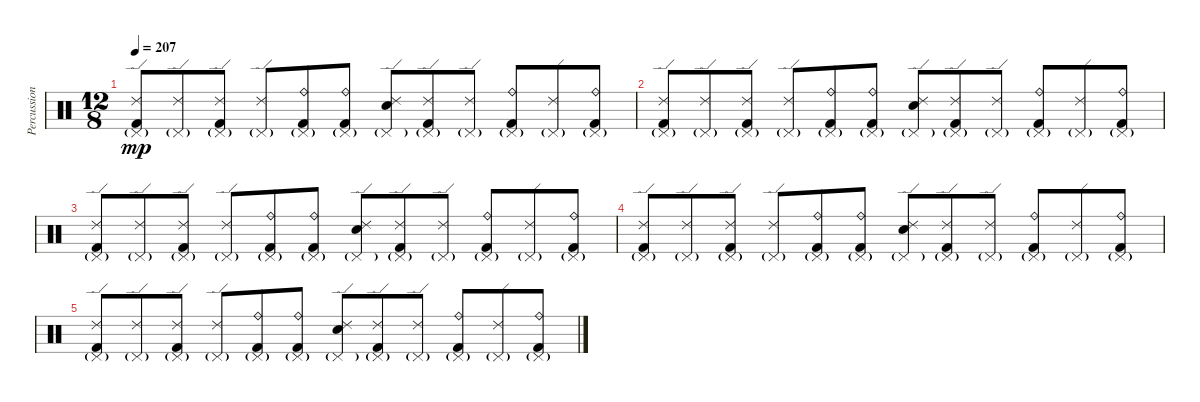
\track ("Percussion" "Percussion") {instrument percussion}
\staff {score}
\articulation defaults
\ts (12 8)
\tempo 207
\clef neutral
\ks c
("Ride (edge) 2" "Pedal Hi-Hat (hit)"{g} "Kick (hit) 2").8{dy mp} ("Ride (edge) 2" "Pedal Hi-Hat (hit)"{g}).8 ("Ride (edge) 2" "Pedal Hi-Hat (hit)"{g} "Kick (hit) 2").8 ("Ride (edge) 2" "Pedal Hi-Hat (hit)"{g}).8 ("Ride (bell)" "Pedal Hi-Hat (hit)"{g} "Kick (hit) 2").8 ("Ride (bell)" "Pedal Hi-Hat (hit)"{g} "Kick (hit) 2").8 ("Ride (edge) 2" "Pedal Hi-Hat (hit)"{g} "Electric Snare (hit)").8 ("Ride (edge) 2" "Pedal Hi-Hat (hit)"{g} "Kick (hit) 2").8 ("Ride (edge) 2" "Pedal Hi-Hat (hit)"{g}).8 ("Ride (bell)" "Pedal Hi-Hat (hit)"{g} "Kick (hit) 2").8 ("Ride (edge) 2" "Pedal Hi-Hat (hit)"{g}).8 ("Ride (bell)" "Pedal Hi-Hat (hit)"{g} "Kick (hit) 2").8 |
("Ride (edge) 2" "Pedal Hi-Hat (hit)"{g} "Kick (hit) 2").8 ("Ride (edge) 2" "Pedal Hi-Hat (hit)"{g}).8 ("Ride (edge) 2" "Pedal Hi-Hat (hit)"{g} "Kick (hit) 2").8 ("Ride (edge) 2" "Pedal Hi-Hat (hit)"{g}).8 ("Ride (bell)" "Pedal Hi-Hat (hit)"{g} "Kick (hit) 2").8 ("Ride (bell)" "Pedal Hi-Hat (hit)"{g} "Kick (hit) 2").8 ("Ride (edge) 2" "Pedal Hi-Hat (hit)"{g} "Electric Snare (hit)").8 ("Ride (edge) 2" "Pedal Hi-Hat (hit)"{g} "Kick (hit) 2").8 ("Ride (edge) 2" "Pedal Hi-Hat (hit)"{g}).8 ("Ride (bell)" "Pedal Hi-Hat (hit)"{g} "Kick (hit) 2").8 ("Ride (edge) 2" "Pedal Hi-Hat (hit)"{g}).8 ("Ride (bell)" "Pedal Hi-Hat (hit)"{g} "Kick (hit) 2").8 |
("Ride (edge) 2" "Pedal Hi-Hat (hit)"{g} "Kick (hit) 2").8 ("Ride (edge) 2" "Pedal Hi-Hat (hit)"{g}).8 ("Ride (edge) 2" "Pedal Hi-Hat (hit)"{g} "Kick (hit) 2").8 ("Ride (edge) 2" "Pedal Hi-Hat (hit)"{g}).8 ("Ride (bell)" "Pedal Hi-Hat (hit)"{g} "Kick (hit) 2").8 ("Ride (bell)" "Pedal Hi-Hat (hit)"{g} "Kick (hit) 2").8 ("Ride (edge) 2" "Pedal Hi-Hat (hit)"{g} "Electric Snare (hit)").8 ("Ride (edge) 2" "Pedal Hi-Hat (hit)"{g} "Kick (hit) 2").8 ("Ride (edge) 2" "Pedal Hi-Hat (hit)"{g}).8 ("Ride (bell)" "Pedal Hi-Hat (hit)"{g} "Kick (hit) 2").8 ("Ride (edge) 2" "Pedal Hi-Hat (hit)"{g}).8 ("Ride (bell)" "Pedal Hi-Hat (hit)"{g} "Kick (hit) 2").8 |
("Ride (edge) 2" "Pedal Hi-Hat (hit)"{g} "Kick (hit) 2").8 ("Ride (edge) 2" "Pedal Hi-Hat (hit)"{g}).8 ("Ride (edge) 2" "Pedal Hi-Hat (hit)"{g} "Kick (hit) 2").8 ("Ride (edge) 2" "Pedal Hi-Hat (hit)"{g}).8 ("Ride (bell)" "Pedal Hi-Hat (hit)"{g} "Kick (hit) 2").8 ("Ride (bell)" "Pedal Hi-Hat (hit)"{g} "Kick (hit) 2").8 ("Ride (edge) 2" "Pedal Hi-Hat (hit)"{g} "Electric Snare (hit)").8 ("Ride (edge) 2" "Pedal Hi-Hat (hit)"{g} "Kick (hit) 2").8 ("Ride (edge) 2" "Pedal Hi-Hat (hit)"{g}).8 ("Ride (bell)" "Pedal Hi-Hat (hit)"{g} "Kick (hit) 2").8 ("Ride (edge) 2" "Pedal Hi-Hat (hit)"{g}).8 ("Ride (bell)" "Pedal Hi-Hat (hit)"{g} "Kick (hit) 2").8 |
("Ride (edge) 2" "Pedal Hi-Hat (hit)"{g} "Kick (hit) 2").8 ("Ride (edge) 2" "Pedal Hi-Hat (hit)"{g}).8 ("Ride (edge) 2" "Pedal Hi-Hat (hit)"{g} "Kick (hit) 2").8 ("Ride (edge) 2" "Pedal Hi-Hat (hit)"{g}).8 ("Ride (bell)" "Pedal Hi-Hat (hit)"{g} "Kick (hit) 2").8 ("Ride (bell)" "Pedal Hi-Hat (hit)"{g} "Kick (hit) 2").8 ("Ride (edge) 2" "Pedal Hi-Hat (hit)"{g} "Electric Snare (hit)").8 ("Ride (edge) 2" "Pedal Hi-Hat (hit)"{g} "Kick (hit) 2").8 ("Ride (edge) 2" "Pedal Hi-Hat (hit)"{g}).8 ("Ride (bell)" "Pedal Hi-Hat (hit)"{g} "Kick (hit) 2").8 ("Ride (edge) 2" "Pedal Hi-Hat (hit)"{g}).8 ("Ride (bell)" "Pedal Hi-Hat (hit)"{g} "Kick (hit) 2").8
